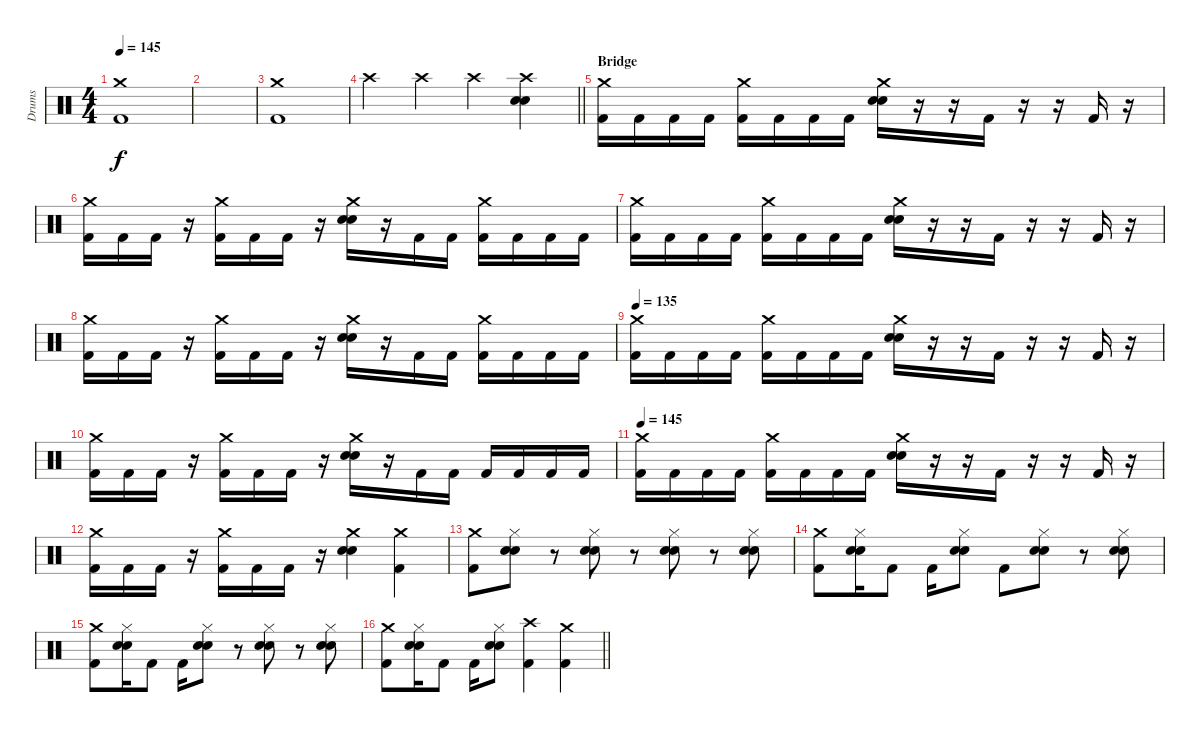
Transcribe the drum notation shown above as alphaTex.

\track ("Drums" "Drums") {instrument percussion}
\staff {score}
\articulation defaults
\ts (4 4)
\tempo 145
\clef neutral
\ks c
("Crash medium (hit)" "Kick (hit) 2").1{dy f} |
|
("Crash medium (hit)" "Kick (hit) 2").1 |
\barLineRight lightlight "Crash high (hit)".4 "Crash high (hit)".4 "Crash high (hit)".4
("Crash high (hit)" "Electric Snare (hit)" "Snare (hit) 2").4 |
\section ("" "Bridge")
("Crash medium (hit)" "Kick (hit) 2").16 "Kick (hit) 2".16 "Kick (hit) 2".16 "Kick (hit) 2".16 ("Crash medium (hit)" "Kick (hit) 2").16 "Kick (hit) 2".16 "Kick (hit) 2".16 "Kick (hit) 2".16 ("Crash medium (hit)" "Electric Snare (hit)" "Snare (hit) 2").16 r.16 r.16 "Kick (hit) 2".16 r.16 r.16 "Kick (hit) 2".16 r.16 |
("Crash medium (hit)" "Kick (hit) 2").16 "Kick (hit) 2".16 "Kick (hit) 2".16 r.16 ("Crash medium (hit)" "Kick (hit) 2").16 "Kick (hit) 2".16 "Kick (hit) 2".16 r.16 ("Crash medium (hit)" "Electric Snare (hit)" "Snare (hit) 2").16 r.16 "Kick (hit) 2".16 "Kick (hit) 2".16 ("Crash medium (hit)" "Kick (hit) 2").16 "Kick (hit) 2".16 "Kick (hit) 2".16 "Kick (hit) 2".16 |
("Crash medium (hit)" "Kick (hit) 2").16 "Kick (hit) 2".16 "Kick (hit) 2".16 "Kick (hit) 2".16 ("Crash medium (hit)" "Kick (hit) 2").16 "Kick (hit) 2".16 "Kick (hit) 2".16 "Kick (hit) 2".16 ("Crash medium (hit)" "Electric Snare (hit)" "Snare (hit) 2").16 r.16 r.16 "Kick (hit) 2".16 r.16 r.16 "Kick (hit) 2".16 r.16 |
("Crash medium (hit)" "Kick (hit) 2").16 "Kick (hit) 2".16 "Kick (hit) 2".16 r.16 ("Crash medium (hit)" "Kick (hit) 2").16 "Kick (hit) 2".16 "Kick (hit) 2".16 r.16 ("Crash medium (hit)" "Electric Snare (hit)" "Snare (hit) 2").16 r.16 "Kick (hit) 2".16 "Kick (hit) 2".16 ("Crash medium (hit)" "Kick (hit) 2").16 "Kick (hit) 2".16 "Kick (hit) 2".16 "Kick (hit) 2".16 |
\tempo 135
("Crash medium (hit)" "Kick (hit) 2").16 "Kick (hit) 2".16 "Kick (hit) 2".16 "Kick (hit) 2".16 ("Crash medium (hit)" "Kick (hit) 2").16 "Kick (hit) 2".16 "Kick (hit) 2".16 "Kick (hit) 2".16 ("Crash medium (hit)" "Electric Snare (hit)" "Snare (hit) 2").16 r.16 r.16 "Kick (hit) 2".16 r.16 r.16 "Kick (hit) 2".16 r.16 |
("Crash medium (hit)" "Kick (hit) 2").16 "Kick (hit) 2".16 "Kick (hit) 2".16 r.16 ("Crash medium (hit)" "Kick (hit) 2").16 "Kick (hit) 2".16 "Kick (hit) 2".16 r.16 ("Crash medium (hit)" "Electric Snare (hit)" "Snare (hit) 2").16 r.16 "Kick (hit) 2".16 "Kick (hit) 2".16 "Kick (hit) 2".16 "Kick (hit) 2".16 "Kick (hit) 2".16 "Kick (hit) 2".16 |
\tempo 145
("Crash medium (hit)" "Kick (hit) 2").16 "Kick (hit) 2".16 "Kick (hit) 2".16 "Kick (hit) 2".16 ("Crash medium (hit)" "Kick (hit) 2").16 "Kick (hit) 2".16 "Kick (hit) 2".16 "Kick (hit) 2".16 ("Crash medium (hit)" "Electric Snare (hit)" "Snare (hit) 2").16 r.16 r.16 "Kick (hit) 2".16 r.16 r.16 "Kick (hit) 2".16 r.16 |
("Crash medium (hit)" "Kick (hit) 2").16 "Kick (hit) 2".16 "Kick (hit) 2".16 r.16 ("Crash medium (hit)" "Kick (hit) 2").16 "Kick (hit) 2".16 "Kick (hit) 2".16 r.16 ("Crash medium (hit)" "Electric Snare (hit)" "Snare (hit) 2").4 ("Crash medium (hit)" "Kick (hit) 2").4 |
("Crash medium (hit)" "Kick (hit) 2").8 ("Hi-Hat (closed)" "Electric Snare (hit)" "Snare (hit) 2").8 r.8 ("Hi-Hat (closed)" "Electric Snare (hit)" "Snare (hit) 2").8 r.8 ("Hi-Hat (closed)" "Electric Snare (hit)" "Snare (hit) 2").8 r.8 ("Hi-Hat (closed)" "Electric Snare (hit)" "Snare (hit) 2").8 |
("Crash medium (hit)" "Kick (hit) 2").8 ("Hi-Hat (closed)" "Electric Snare (hit)" "Snare (hit) 2").16 "Kick (hit) 2".8 "Kick (hit) 2".16 ("Hi-Hat (closed)" "Electric Snare (hit)" "Snare (hit) 2").8 "Kick (hit) 2".8 ("Hi-Hat (closed)" "Electric Snare (hit)" "Snare (hit) 2").8 r.8 ("Hi-Hat (closed)" "Electric Snare (hit)" "Snare (hit) 2").8 |
("Crash medium (hit)" "Kick (hit) 2").8 ("Hi-Hat (closed)" "Electric Snare (hit)" "Snare (hit) 2").16 "Kick (hit) 2".8 "Kick (hit) 2".16 ("Hi-Hat (closed)" "Electric Snare (hit)" "Snare (hit) 2").8 r.8 ("Hi-Hat (closed)" "Electric Snare (hit)" "Snare (hit) 2").8 r.8 ("Hi-Hat (closed)" "Electric Snare (hit)" "Snare (hit) 2").8 |
\barLineRight lightlight
("Crash medium (hit)" "Kick (hit) 2").8 ("Hi-Hat (closed)" "Electric Snare (hit)" "Snare (hit) 2").16 "Kick (hit) 2".8 "Kick (hit) 2".16 ("Hi-Hat (closed)" "Electric Snare (hit)" "Snare (hit) 2").8 ("Crash high (hit)" "Kick (hit) 2").4 ("Crash medium (hit)" "Kick (hit) 2").4
